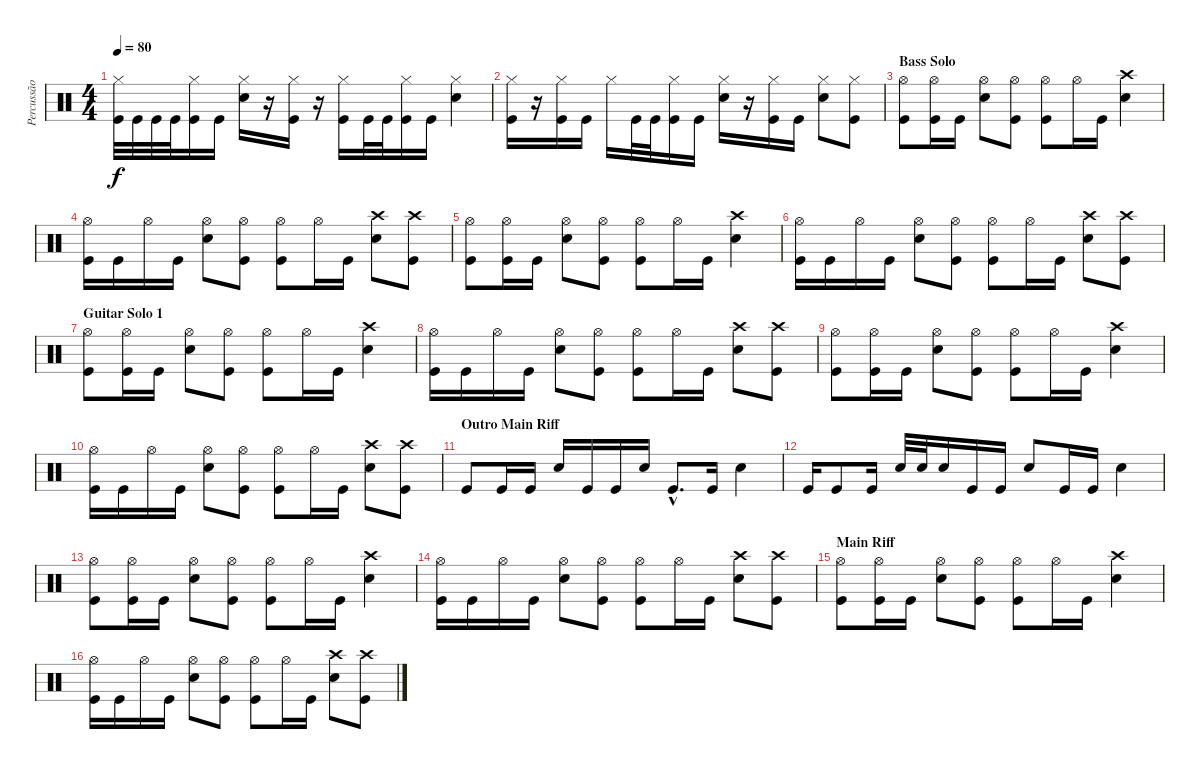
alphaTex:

\track ("Percussão" "Percussão") {instrument percussion}
\staff {score}
\articulation defaults
\ts (4 4)
\tempo 80
\clef neutral
\ks c
("Hi-Hat (closed)" "Kick (hit)").32{dy f} "Kick (hit)".32 "Kick (hit)".32 "Kick (hit)".32 ("Hi-Hat (closed)" "Kick (hit)").16 "Kick (hit)".16 ("Hi-Hat (closed)" "Snare (hit) 2").16 r.16 ("Hi-Hat (closed)" "Kick (hit)").16 r.16 ("Hi-Hat (closed)" "Kick (hit)").16 "Kick (hit)".32 "Kick (hit)".32 ("Hi-Hat (closed)" "Kick (hit)").16 "Kick (hit)".16 ("Hi-Hat (closed)" "Snare (hit) 2").4 |
("Hi-Hat (closed)" "Kick (hit)").16 r.16 ("Hi-Hat (closed)" "Kick (hit)").16 "Kick (hit)".16 "Hi-Hat (closed)".16 "Kick (hit)".32 "Kick (hit)".32 ("Hi-Hat (closed)" "Kick (hit)").16 "Kick (hit)".16 ("Hi-Hat (closed)" "Snare (hit) 2").16 r.16 ("Hi-Hat (closed)" "Kick (hit)").16 "Kick (hit)".16 ("Hi-Hat (closed)" "Snare (hit) 2").8 ("Hi-Hat (closed)" "Kick (hit)").8 |
\section ("" "Bass Solo")
("Hi-Hat (open)" "Kick (hit)").8 ("Hi-Hat (open)" "Kick (hit)").16 "Kick (hit)".16 ("Hi-Hat (open)" "Snare (hit) 2").8 ("Hi-Hat (open)" "Kick (hit)").8 ("Hi-Hat (open)" "Kick (hit)").8 "Hi-Hat (open)".16 "Kick (hit)".16 ("Crash high (hit)" "Snare (hit) 2").4 |
("Hi-Hat (open)" "Kick (hit)").16 "Kick (hit)".16 "Hi-Hat (open)".16 "Kick (hit)".16 ("Hi-Hat (open)" "Snare (hit) 2").8 ("Hi-Hat (open)" "Kick (hit)").8 ("Hi-Hat (open)" "Kick (hit)").8 "Hi-Hat (open)".16 "Kick (hit)".16 ("Crash high (hit)" "Snare (hit) 2").8 ("Crash high (hit)" "Kick (hit)").8 |
("Hi-Hat (open)" "Kick (hit)").8 ("Hi-Hat (open)" "Kick (hit)").16 "Kick (hit)".16 ("Hi-Hat (open)" "Snare (hit) 2").8 ("Hi-Hat (open)" "Kick (hit)").8 ("Hi-Hat (open)" "Kick (hit)").8 "Hi-Hat (open)".16 "Kick (hit)".16 ("Crash high (hit)" "Snare (hit) 2").4 |
("Hi-Hat (open)" "Kick (hit)").16 "Kick (hit)".16 "Hi-Hat (open)".16 "Kick (hit)".16 ("Hi-Hat (open)" "Snare (hit) 2").8 ("Hi-Hat (open)" "Kick (hit)").8 ("Hi-Hat (open)" "Kick (hit)").8 "Hi-Hat (open)".16 "Kick (hit)".16 ("Crash high (hit)" "Snare (hit) 2").8 ("Crash high (hit)" "Kick (hit)").8 |
\section ("" "Guitar Solo 1")
("Hi-Hat (open)" "Kick (hit)").8 ("Hi-Hat (open)" "Kick (hit)").16 "Kick (hit)".16 ("Hi-Hat (open)" "Snare (hit) 2").8 ("Hi-Hat (open)" "Kick (hit)").8 ("Hi-Hat (open)" "Kick (hit)").8 "Hi-Hat (open)".16 "Kick (hit)".16 ("Crash high (hit)" "Snare (hit) 2").4 |
("Hi-Hat (open)" "Kick (hit)").16 "Kick (hit)".16 "Hi-Hat (open)".16 "Kick (hit)".16 ("Hi-Hat (open)" "Snare (hit) 2").8 ("Hi-Hat (open)" "Kick (hit)").8 ("Hi-Hat (open)" "Kick (hit)").8 "Hi-Hat (open)".16 "Kick (hit)".16 ("Crash high (hit)" "Snare (hit) 2").8 ("Crash high (hit)" "Kick (hit)").8 |
("Hi-Hat (open)" "Kick (hit)").8 ("Hi-Hat (open)" "Kick (hit)").16 "Kick (hit)".16 ("Hi-Hat (open)" "Snare (hit) 2").8 ("Hi-Hat (open)" "Kick (hit)").8 ("Hi-Hat (open)" "Kick (hit)").8 "Hi-Hat (open)".16 "Kick (hit)".16 ("Crash high (hit)" "Snare (hit) 2").4 |
("Hi-Hat (open)" "Kick (hit)").16 "Kick (hit)".16 "Hi-Hat (open)".16 "Kick (hit)".16 ("Hi-Hat (open)" "Snare (hit) 2").8 ("Hi-Hat (open)" "Kick (hit)").8 ("Hi-Hat (open)" "Kick (hit)").8 "Hi-Hat (open)".16 "Kick (hit)".16 ("Crash high (hit)" "Snare (hit) 2").8 ("Crash high (hit)" "Kick (hit)").8 |
\section ("" "Outro Main Riff")
"Kick (hit)".8 "Kick (hit)".16 "Kick (hit)".16 "Snare (hit) 2".16 "Kick (hit)".16 "Kick (hit)".16 "Snare (hit) 2".16 "Kick (hit)"{hac}.8{d} "Kick (hit)".16 "Snare (hit) 2".4 |
"Kick (hit)".16 "Kick (hit)".8 "Kick (hit)".16 "Snare (hit) 2".32 "Snare (hit) 2".32 "Snare (hit) 2".16 "Kick (hit)".16 "Kick (hit)".16 "Snare (hit) 2".8 "Kick (hit)".16 "Kick (hit)".16 "Snare (hit) 2".4 |
("Hi-Hat (open)" "Kick (hit)").8 ("Hi-Hat (open)" "Kick (hit)").16 "Kick (hit)".16 ("Hi-Hat (open)" "Snare (hit) 2").8 ("Hi-Hat (open)" "Kick (hit)").8 ("Hi-Hat (open)" "Kick (hit)").8 "Hi-Hat (open)".16 "Kick (hit)".16 ("Crash high (hit)" "Snare (hit) 2").4 |
("Hi-Hat (open)" "Kick (hit)").16 "Kick (hit)".16 "Hi-Hat (open)".16 "Kick (hit)".16 ("Hi-Hat (open)" "Snare (hit) 2").8 ("Hi-Hat (open)" "Kick (hit)").8 ("Hi-Hat (open)" "Kick (hit)").8 "Hi-Hat (open)".16 "Kick (hit)".16 ("Crash high (hit)" "Snare (hit) 2").8 ("Crash high (hit)" "Kick (hit)").8 |
\section ("" "Main Riff")
("Hi-Hat (open)" "Kick (hit)").8 ("Hi-Hat (open)" "Kick (hit)").16 "Kick (hit)".16 ("Hi-Hat (open)" "Snare (hit) 2").8 ("Hi-Hat (open)" "Kick (hit)").8 ("Hi-Hat (open)" "Kick (hit)").8 "Hi-Hat (open)".16 "Kick (hit)".16 ("Crash high (hit)" "Snare (hit) 2").4 |
("Hi-Hat (open)" "Kick (hit)").16 "Kick (hit)".16 "Hi-Hat (open)".16 "Kick (hit)".16 ("Hi-Hat (open)" "Snare (hit) 2").8 ("Hi-Hat (open)" "Kick (hit)").8 ("Hi-Hat (open)" "Kick (hit)").8 "Hi-Hat (open)".16 "Kick (hit)".16 ("Crash high (hit)" "Snare (hit) 2").8 ("Crash high (hit)" "Kick (hit)").8
